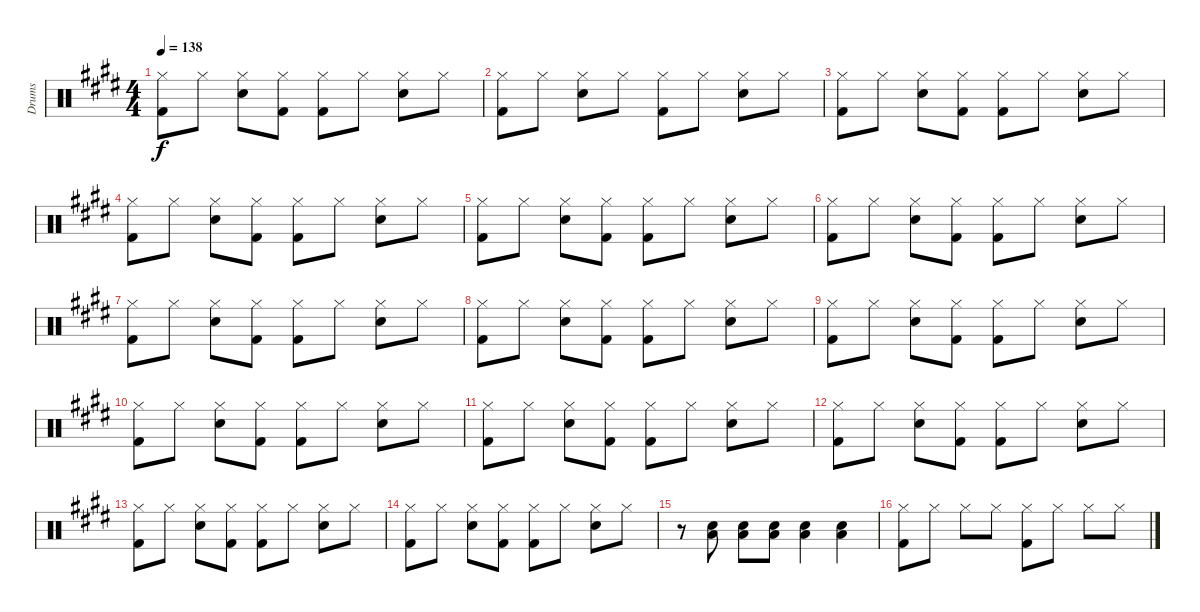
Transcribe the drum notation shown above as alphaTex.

\track ("Drums" "Drums") {instrument percussion}
\staff {score}
\articulation defaults
\ts (4 4)
\tempo 138
\clef neutral
\ks e
("Hi-Hat (closed)" "Kick (hit) 2").8{dy f} "Hi-Hat (closed)".8 ("Hi-Hat (closed)" "Snare (hit) 2").8 ("Hi-Hat (closed)" "Kick (hit) 2").8 ("Hi-Hat (closed)" "Kick (hit) 2").8 "Hi-Hat (closed)".8 ("Hi-Hat (closed)" "Snare (hit) 2").8 "Hi-Hat (closed)".8 |
("Hi-Hat (closed)" "Kick (hit) 2").8 "Hi-Hat (closed)".8 ("Hi-Hat (closed)" "Snare (hit) 2").8 "Hi-Hat (closed)".8 ("Hi-Hat (closed)" "Kick (hit) 2").8 "Hi-Hat (closed)".8 ("Hi-Hat (closed)" "Snare (hit) 2").8 "Hi-Hat (closed)".8 |
("Hi-Hat (closed)" "Kick (hit) 2").8 "Hi-Hat (closed)".8 ("Hi-Hat (closed)" "Snare (hit) 2").8 ("Hi-Hat (closed)" "Kick (hit) 2").8 ("Hi-Hat (closed)" "Kick (hit) 2").8 "Hi-Hat (closed)".8 ("Hi-Hat (closed)" "Snare (hit) 2").8 "Hi-Hat (closed)".8 |
("Hi-Hat (closed)" "Kick (hit) 2").8 "Hi-Hat (closed)".8 ("Hi-Hat (closed)" "Snare (hit) 2").8 ("Hi-Hat (closed)" "Kick (hit) 2").8 ("Hi-Hat (closed)" "Kick (hit) 2").8 "Hi-Hat (closed)".8 ("Hi-Hat (closed)" "Snare (hit) 2").8 "Hi-Hat (closed)".8 |
("Hi-Hat (closed)" "Kick (hit) 2").8 "Hi-Hat (closed)".8 ("Hi-Hat (closed)" "Snare (hit) 2").8 ("Hi-Hat (closed)" "Kick (hit) 2").8 ("Hi-Hat (closed)" "Kick (hit) 2").8 "Hi-Hat (closed)".8 ("Hi-Hat (closed)" "Snare (hit) 2").8 "Hi-Hat (closed)".8 |
("Hi-Hat (closed)" "Kick (hit) 2").8 "Hi-Hat (closed)".8 ("Hi-Hat (closed)" "Snare (hit) 2").8 ("Hi-Hat (closed)" "Kick (hit) 2").8 ("Hi-Hat (closed)" "Kick (hit) 2").8 "Hi-Hat (closed)".8 ("Hi-Hat (closed)" "Snare (hit) 2").8 "Hi-Hat (closed)".8 |
("Hi-Hat (closed)" "Kick (hit) 2").8 "Hi-Hat (closed)".8 ("Hi-Hat (closed)" "Snare (hit) 2").8 ("Hi-Hat (closed)" "Kick (hit) 2").8 ("Hi-Hat (closed)" "Kick (hit) 2").8 "Hi-Hat (closed)".8 ("Hi-Hat (closed)" "Snare (hit) 2").8 "Hi-Hat (closed)".8 |
("Hi-Hat (closed)" "Kick (hit) 2").8 "Hi-Hat (closed)".8 ("Hi-Hat (closed)" "Snare (hit) 2").8 ("Hi-Hat (closed)" "Kick (hit) 2").8 ("Hi-Hat (closed)" "Kick (hit) 2").8 "Hi-Hat (closed)".8 ("Hi-Hat (closed)" "Snare (hit) 2").8 "Hi-Hat (closed)".8 |
("Hi-Hat (closed)" "Kick (hit) 2").8 "Hi-Hat (closed)".8 ("Hi-Hat (closed)" "Snare (hit) 2").8 ("Hi-Hat (closed)" "Kick (hit) 2").8 ("Hi-Hat (closed)" "Kick (hit) 2").8 "Hi-Hat (closed)".8 ("Hi-Hat (closed)" "Snare (hit) 2").8 "Hi-Hat (closed)".8 |
("Hi-Hat (closed)" "Kick (hit) 2").8 "Hi-Hat (closed)".8 ("Hi-Hat (closed)" "Snare (hit) 2").8 ("Hi-Hat (closed)" "Kick (hit) 2").8 ("Hi-Hat (closed)" "Kick (hit) 2").8 "Hi-Hat (closed)".8 ("Hi-Hat (closed)" "Snare (hit) 2").8 "Hi-Hat (closed)".8 |
("Hi-Hat (closed)" "Kick (hit) 2").8 "Hi-Hat (closed)".8 ("Hi-Hat (closed)" "Snare (hit) 2").8 ("Hi-Hat (closed)" "Kick (hit) 2").8 ("Hi-Hat (closed)" "Kick (hit) 2").8 "Hi-Hat (closed)".8 ("Hi-Hat (closed)" "Snare (hit) 2").8 "Hi-Hat (closed)".8 |
("Hi-Hat (closed)" "Kick (hit) 2").8 "Hi-Hat (closed)".8 ("Hi-Hat (closed)" "Snare (hit) 2").8 ("Hi-Hat (closed)" "Kick (hit) 2").8 ("Hi-Hat (closed)" "Kick (hit) 2").8 "Hi-Hat (closed)".8 ("Hi-Hat (closed)" "Snare (hit) 2").8 "Hi-Hat (closed)".8 |
("Hi-Hat (closed)" "Kick (hit) 2").8 "Hi-Hat (closed)".8 ("Hi-Hat (closed)" "Snare (hit) 2").8 ("Hi-Hat (closed)" "Kick (hit) 2").8 ("Hi-Hat (closed)" "Kick (hit) 2").8 "Hi-Hat (closed)".8 ("Hi-Hat (closed)" "Snare (hit) 2").8 "Hi-Hat (closed)".8 |
("Hi-Hat (closed)" "Kick (hit) 2").8 "Hi-Hat (closed)".8 ("Hi-Hat (closed)" "Snare (hit) 2").8 ("Hi-Hat (closed)" "Kick (hit) 2").8 ("Hi-Hat (closed)" "Kick (hit) 2").8 "Hi-Hat (closed)".8 ("Hi-Hat (closed)" "Snare (hit) 2").8 "Hi-Hat (closed)".8 |
r.8 ("Snare (hit) 2" "Low Floor Tom (hit)").8 ("Snare (hit) 2" "Low Floor Tom (hit)").8 ("Snare (hit) 2" "Low Floor Tom (hit)").8 ("Snare (hit) 2" "Low Floor Tom (hit)").4 ("Snare (hit) 2" "Low Floor Tom (hit)").4 |
("Hi-Hat (closed)" "Kick (hit) 2").8 "Hi-Hat (closed)".8 "Hi-Hat (closed)".8 "Hi-Hat (closed)".8 ("Hi-Hat (closed)" "Kick (hit) 2").8 "Hi-Hat (closed)".8 "Hi-Hat (closed)".8 "Hi-Hat (closed)".8
